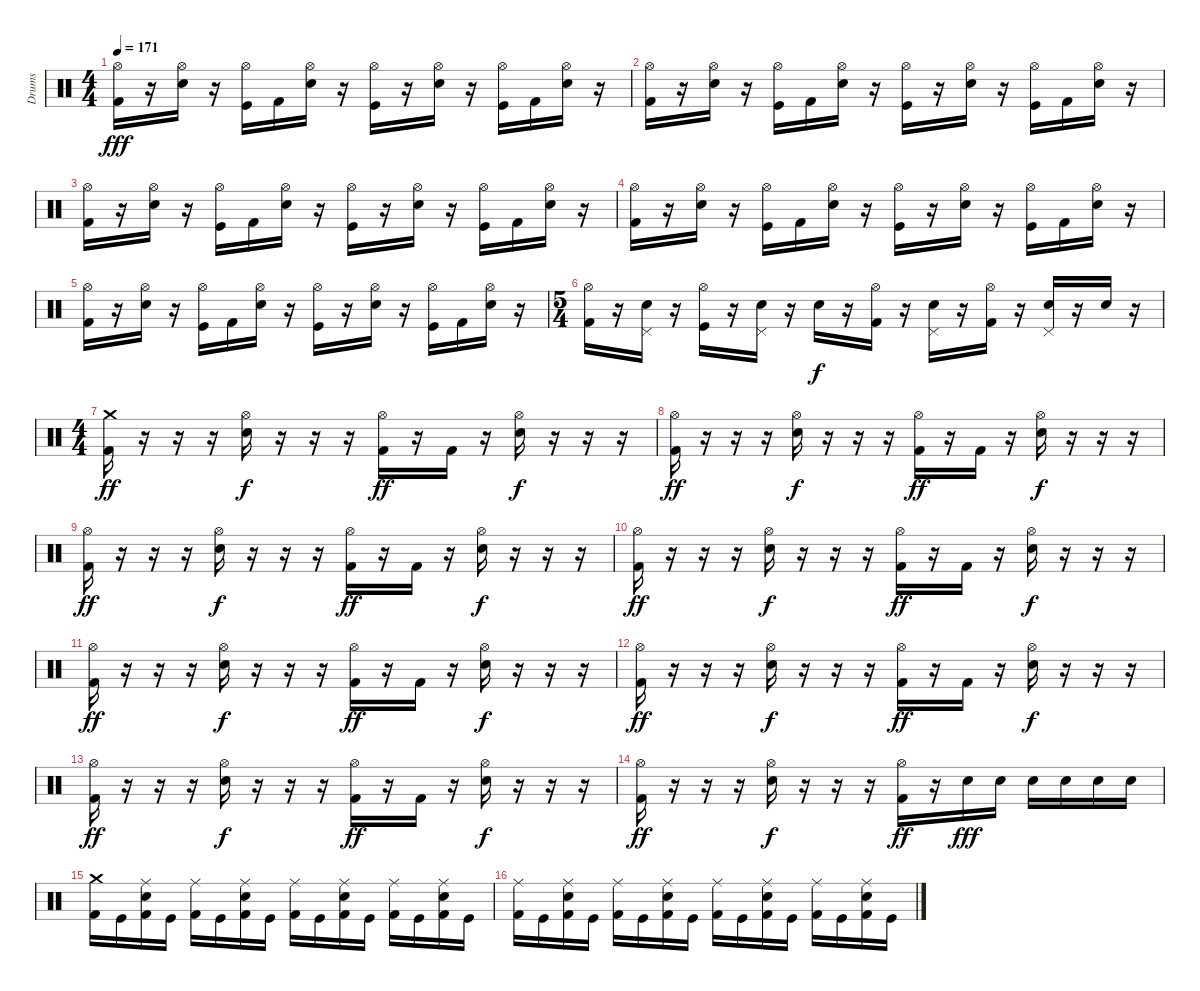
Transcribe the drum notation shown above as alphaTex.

\track ("Drums" "Drums") {instrument percussion}
\staff {score}
\articulation defaults
\ts (4 4)
\tempo 171
\clef neutral
\ks c
("Hi-Hat (open)" "Kick (hit) 2").16{dy fff} r.16 ("Hi-Hat (open)" "Electric Snare (hit)").16 r.16 ("Hi-Hat (open)" "Kick (hit)").16 "Kick (hit) 2".16 ("Hi-Hat (open)" "Electric Snare (hit)").16 r.16 ("Hi-Hat (open)" "Kick (hit)").16 r.16 ("Hi-Hat (open)" "Electric Snare (hit)").16 r.16 ("Hi-Hat (open)" "Kick (hit)").16 "Kick (hit) 2".16 ("Hi-Hat (open)" "Electric Snare (hit)").16 r.16 |
("Hi-Hat (open)" "Kick (hit) 2").16 r.16 ("Hi-Hat (open)" "Electric Snare (hit)").16 r.16 ("Hi-Hat (open)" "Kick (hit)").16 "Kick (hit) 2".16 ("Hi-Hat (open)" "Electric Snare (hit)").16 r.16 ("Hi-Hat (open)" "Kick (hit)").16 r.16 ("Hi-Hat (open)" "Electric Snare (hit)").16 r.16 ("Hi-Hat (open)" "Kick (hit)").16 "Kick (hit) 2".16 ("Hi-Hat (open)" "Electric Snare (hit)").16 r.16 |
("Hi-Hat (open)" "Kick (hit) 2").16 r.16 ("Hi-Hat (open)" "Electric Snare (hit)").16 r.16 ("Hi-Hat (open)" "Kick (hit)").16 "Kick (hit) 2".16 ("Hi-Hat (open)" "Electric Snare (hit)").16 r.16 ("Hi-Hat (open)" "Kick (hit)").16 r.16 ("Hi-Hat (open)" "Electric Snare (hit)").16 r.16 ("Hi-Hat (open)" "Kick (hit)").16 "Kick (hit) 2".16 ("Hi-Hat (open)" "Electric Snare (hit)").16 r.16 |
("Hi-Hat (open)" "Kick (hit) 2").16 r.16 ("Hi-Hat (open)" "Electric Snare (hit)").16 r.16 ("Hi-Hat (open)" "Kick (hit)").16 "Kick (hit) 2".16 ("Hi-Hat (open)" "Electric Snare (hit)").16 r.16 ("Hi-Hat (open)" "Kick (hit)").16 r.16 ("Hi-Hat (open)" "Electric Snare (hit)").16 r.16 ("Hi-Hat (open)" "Kick (hit)").16 "Kick (hit) 2".16 ("Hi-Hat (open)" "Electric Snare (hit)").16 r.16 |
("Hi-Hat (open)" "Kick (hit) 2").16 r.16 ("Hi-Hat (open)" "Electric Snare (hit)").16 r.16 ("Hi-Hat (open)" "Kick (hit)").16 "Kick (hit) 2".16 ("Hi-Hat (open)" "Electric Snare (hit)").16 r.16 ("Hi-Hat (open)" "Kick (hit)").16 r.16 ("Hi-Hat (open)" "Electric Snare (hit)").16 r.16 ("Hi-Hat (open)" "Kick (hit)").16 "Kick (hit) 2".16 ("Hi-Hat (open)" "Electric Snare (hit)").16 r.16 |
\ts (5 4)
("Hi-Hat (open)" "Kick (hit) 2").16 r.16 ("Pedal Hi-Hat (hit)" "Electric Snare (hit)").16 r.16 ("Hi-Hat (open)" "Kick (hit)").16 r.16 ("Pedal Hi-Hat (hit)" "Electric Snare (hit)").16 r.16 "Electric Snare (hit)".16{dy f} r.16 ("Hi-Hat (open)" "Kick (hit) 2").16 r.16 ("Pedal Hi-Hat (hit)" "Electric Snare (hit)").16 r.16 ("Hi-Hat (open)" "Kick (hit) 2").16 r.16 ("Pedal Hi-Hat (hit)" "Electric Snare (hit)").16 r.16 "Electric Snare (hit)".16 r.16 |
\ts (4 4)
("Crash medium (hit)" "Kick (hit) 2").16{dy ff} r.16 r.16 r.16 ("Hi-Hat (open)" "Electric Snare (hit)").16{dy f} r.16 r.16 r.16 ("Hi-Hat (open)" "Kick (hit) 2").16{dy ff} r.16 "Kick (hit) 2".16 r.16 ("Hi-Hat (open)" "Electric Snare (hit)").16{dy f} r.16 r.16 r.16 |
("Hi-Hat (open)" "Kick (hit) 2").16{dy ff} r.16 r.16 r.16 ("Hi-Hat (open)" "Electric Snare (hit)").16{dy f} r.16 r.16 r.16 ("Hi-Hat (open)" "Kick (hit) 2").16{dy ff} r.16 "Kick (hit) 2".16 r.16 ("Hi-Hat (open)" "Electric Snare (hit)").16{dy f} r.16 r.16 r.16 |
("Hi-Hat (open)" "Kick (hit) 2").16{dy ff} r.16 r.16 r.16 ("Hi-Hat (open)" "Electric Snare (hit)").16{dy f} r.16 r.16 r.16 ("Hi-Hat (open)" "Kick (hit) 2").16{dy ff} r.16 "Kick (hit) 2".16 r.16 ("Hi-Hat (open)" "Electric Snare (hit)").16{dy f} r.16 r.16 r.16 |
("Hi-Hat (open)" "Kick (hit) 2").16{dy ff} r.16 r.16 r.16 ("Hi-Hat (open)" "Electric Snare (hit)").16{dy f} r.16 r.16 r.16 ("Hi-Hat (open)" "Kick (hit) 2").16{dy ff} r.16 "Kick (hit) 2".16 r.16 ("Hi-Hat (open)" "Electric Snare (hit)").16{dy f} r.16 r.16 r.16 |
("Hi-Hat (open)" "Kick (hit) 2").16{dy ff} r.16 r.16 r.16 ("Hi-Hat (open)" "Electric Snare (hit)").16{dy f} r.16 r.16 r.16 ("Hi-Hat (open)" "Kick (hit) 2").16{dy ff} r.16 "Kick (hit) 2".16 r.16 ("Hi-Hat (open)" "Electric Snare (hit)").16{dy f} r.16 r.16 r.16 |
("Hi-Hat (open)" "Kick (hit) 2").16{dy ff} r.16 r.16 r.16 ("Hi-Hat (open)" "Electric Snare (hit)").16{dy f} r.16 r.16 r.16 ("Hi-Hat (open)" "Kick (hit) 2").16{dy ff} r.16 "Kick (hit) 2".16 r.16 ("Hi-Hat (open)" "Electric Snare (hit)").16{dy f} r.16 r.16 r.16 |
("Hi-Hat (open)" "Kick (hit) 2").16{dy ff} r.16 r.16 r.16 ("Hi-Hat (open)" "Electric Snare (hit)").16{dy f} r.16 r.16 r.16 ("Hi-Hat (open)" "Kick (hit) 2").16{dy ff} r.16 "Kick (hit) 2".16 r.16 ("Hi-Hat (open)" "Electric Snare (hit)").16{dy f} r.16 r.16 r.16 |
("Hi-Hat (open)" "Kick (hit) 2").16{dy ff} r.16 r.16 r.16 ("Hi-Hat (open)" "Electric Snare (hit)").16{dy f} r.16 r.16 r.16 ("Hi-Hat (open)" "Kick (hit) 2").16{dy ff} r.16 "Electric Snare (hit)".16{dy fff} "Electric Snare (hit)".16 "Electric Snare (hit)".16 "Electric Snare (hit)".16 "Electric Snare (hit)".16 "Electric Snare (hit)".16 |
("Crash medium (hit)" "Kick (hit) 2").16 "Kick (hit)".16 ("Ride (middle)" "Electric Snare (hit)" "Kick (hit) 2").16 "Kick (hit)".16 ("Ride (middle)" "Kick (hit) 2").16 "Kick (hit)".16 ("Ride (middle)" "Electric Snare (hit)" "Kick (hit) 2").16 "Kick (hit)".16 ("Ride (middle)" "Kick (hit) 2").16 "Kick (hit)".16 ("Ride (middle)" "Electric Snare (hit)" "Kick (hit) 2").16 "Kick (hit)".16 ("Ride (middle)" "Kick (hit) 2").16 "Kick (hit)".16 ("Ride (middle)" "Electric Snare (hit)" "Kick (hit) 2").16 "Kick (hit)".16 |
("Ride (middle)" "Kick (hit) 2").16 "Kick (hit)".16 ("Ride (middle)" "Electric Snare (hit)" "Kick (hit) 2").16 "Kick (hit)".16 ("Ride (middle)" "Kick (hit) 2").16 "Kick (hit)".16 ("Ride (middle)" "Electric Snare (hit)" "Kick (hit) 2").16 "Kick (hit)".16 ("Ride (middle)" "Kick (hit) 2").16 "Kick (hit)".16 ("Ride (middle)" "Electric Snare (hit)" "Kick (hit) 2").16 "Kick (hit)".16 ("Ride (middle)" "Kick (hit) 2").16 "Kick (hit)".16 ("Ride (middle)" "Electric Snare (hit)" "Kick (hit) 2").16 "Kick (hit)".16
